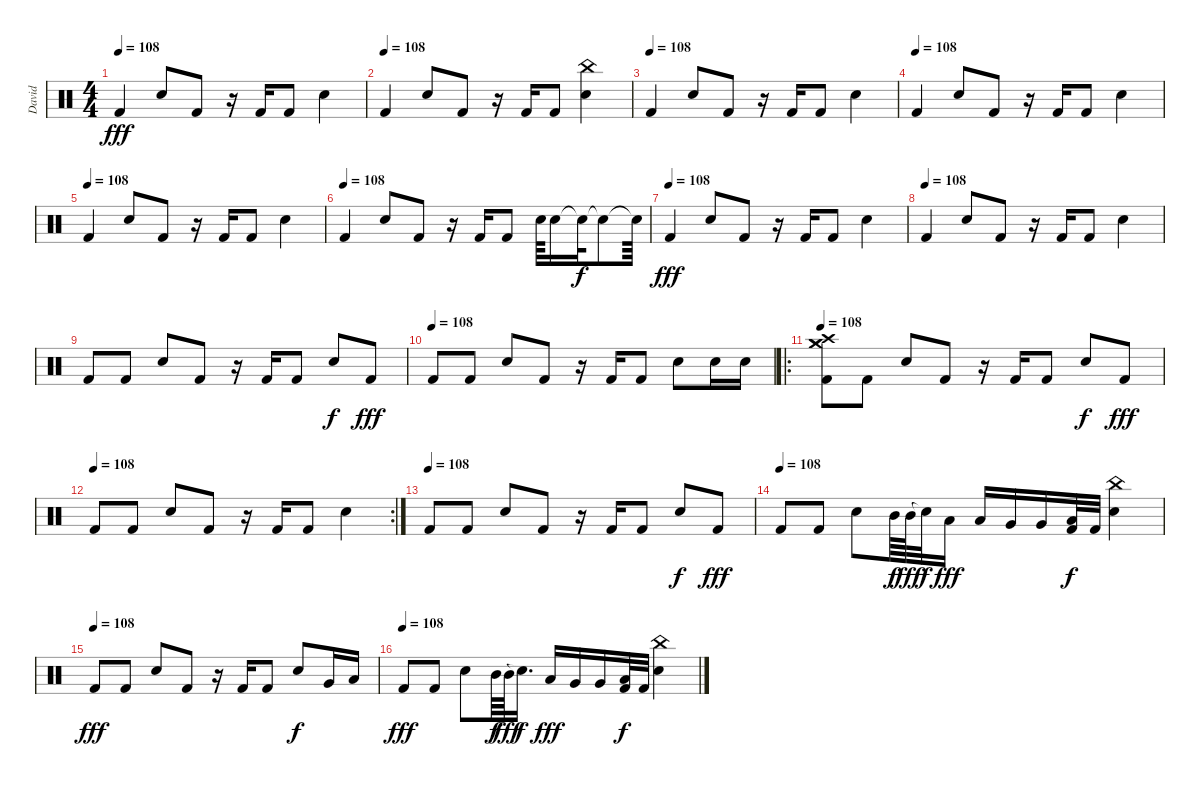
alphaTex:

\track ("David" "David") {instrument percussion}
\staff {score}
\articulation defaults
\ts (4 4)
\tempo 108
\clef neutral
\ks c "Kick (hit) 2".4{dy fff} "Snare (hit) 2".8 "Kick (hit) 2".8
r.16 "Kick (hit) 2".16 "Kick (hit) 2".8 "Snare (hit) 2".4 |
\tempo (108)
"Kick (hit) 2".4 "Snare (hit) 2".8 "Kick (hit) 2".8 r.16 "Kick (hit) 2".16 "Kick (hit) 2".8 ("China (hit)" "Snare (hit) 2").4 |
\tempo (108)
"Kick (hit) 2".4 "Snare (hit) 2".8 "Kick (hit) 2".8 r.16 "Kick (hit) 2".16 "Kick (hit) 2".8 "Snare (hit) 2".4 |
\tempo (108)
"Kick (hit) 2".4 "Snare (hit) 2".8 "Kick (hit) 2".8 r.16 "Kick (hit) 2".16 "Kick (hit) 2".8 "Snare (hit) 2".4 |
\tempo (108)
"Kick (hit) 2".4 "Snare (hit) 2".8 "Kick (hit) 2".8 r.16 "Kick (hit) 2".16 "Kick (hit) 2".8 "Snare (hit) 2".4 |
\tempo (108)
"Kick (hit) 2".4 "Snare (hit) 2".8 "Kick (hit) 2".8 r.16 "Kick (hit) 2".16 "Kick (hit) 2".8 "Snare (hit) 2".64 "Snare (hit) 2".16 "Snare (hit)"{t}.32{dy f} "Snare (hit)"{t}.8 "Snare (hit)"{t}.64 |
\tempo (108)
"Kick (hit) 2".4{dy fff} "Snare (hit) 2".8 "Kick (hit) 2".8 r.16 "Kick (hit) 2".16 "Kick (hit) 2".8 "Snare (hit) 2".4 |
\tempo (108)
"Kick (hit) 2".4 "Snare (hit) 2".8 "Kick (hit) 2".8 r.16 "Kick (hit) 2".16 "Kick (hit) 2".8 "Snare (hit) 2".4 |
"Kick (hit) 2".8 "Kick (hit) 2".8 "Snare (hit) 2".8 "Kick (hit) 2".8 r.16 "Kick (hit) 2".16 "Kick (hit) 2".8 "Snare (hit) 2".8{dy f} "Kick (hit) 2".8{dy fff} |
\tempo (108)
"Kick (hit) 2".8 "Kick (hit) 2".8 "Snare (hit) 2".8 "Kick (hit) 2".8 r.16 "Kick (hit) 2".16 "Kick (hit) 2".8 "Snare (hit) 2".8 "Snare (hit) 2".16 "Snare (hit) 2".16 |
\ro
\tempo 108
("Crash medium (hit)" "Crash high (hit)" "Crash medium (hit)" "Kick (hit) 2").8 "Kick (hit) 2".8 "Snare (hit) 2".8 "Kick (hit) 2".8 r.16 "Kick (hit) 2".16 "Kick (hit) 2".8 "Snare (hit) 2".8{dy f} "Kick (hit) 2".8{dy fff} |
\rc 2
\tempo (108)
"Kick (hit) 2".8 "Kick (hit) 2".8 "Snare (hit) 2".8 "Kick (hit) 2".8 r.16 "Kick (hit) 2".16 "Kick (hit) 2".8 "Snare (hit) 2".4 |
\tempo (108)
"Kick (hit) 2".8 "Kick (hit) 2".8 "Snare (hit) 2".8 "Kick (hit) 2".8 r.16 "Kick (hit) 2".16 "Kick (hit) 2".8 "Snare (hit) 2".8{dy f} "Kick (hit) 2".8{dy fff} |
\tempo (108)
"Kick (hit) 2".8 "Kick (hit) 2".8 "Snare (hit) 2".8 "Mid Tom (hit)".64{dy f} "Mid Tom (hit)".64{dy fff} "Snare (hit)"{t}.32{dy f} "Low Tom (hit)".16{dy fff} "Low Tom (hit)".16 "Very Low Tom (hit)".16 "Very Low Tom (hit)".16 ("Low Floor Tom (hit)" "Kick (hit) 2").32{dy f} "Kick (hit) 2".32 ("China (hit)" "Snare (hit) 2").4 |
\tempo (108)
"Kick (hit) 2".8{dy fff} "Kick (hit) 2".8 "Snare (hit) 2".8 "Kick (hit) 2".8 r.16 "Kick (hit) 2".16 "Kick (hit) 2".8 "Snare (hit) 2".8{dy f} "Very Low Tom (hit)".16 "Low Tom (hit)".16 |
\tempo (108)
"Kick (hit) 2".8{dy fff} "Kick (hit) 2".8 "Snare (hit) 2".8 "Mid Tom (hit)".64{dy f} "Mid Tom (hit)".64{dy fff} "Snare (hit)"{t}.16{d dy f} "Low Tom (hit)".16{dy fff} "Very Low Tom (hit)".16 "Very Low Tom (hit)".16 ("Low Floor Tom (hit)" "Kick (hit) 2").32{dy f} "Kick (hit) 2".32 ("China (hit)" "Snare (hit) 2").4
